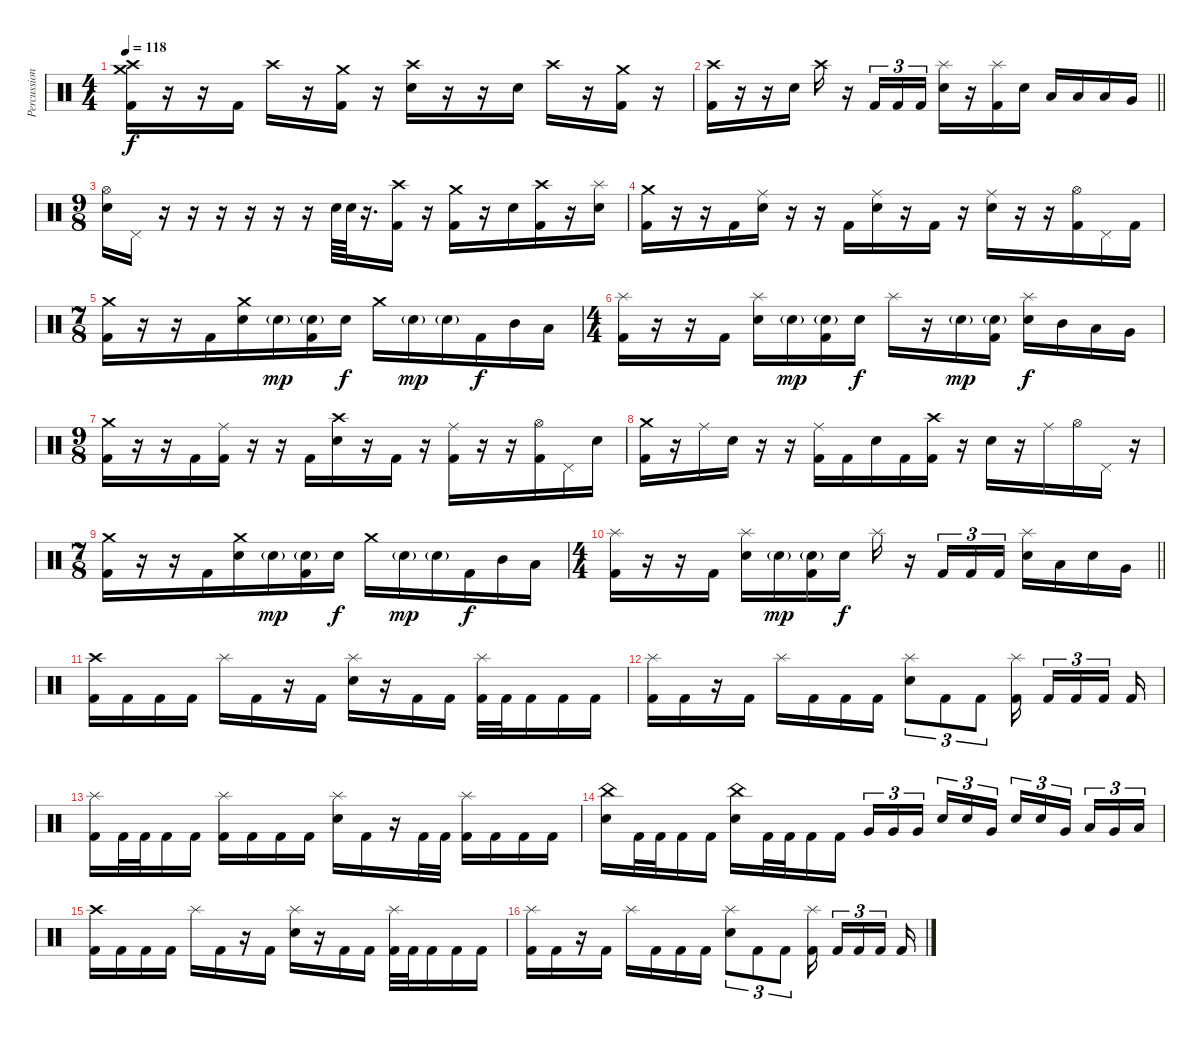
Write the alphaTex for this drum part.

\track ("Percussions" "Percussion") {instrument percussion}
\staff {score}
\articulation defaults
\ts (4 4)
\tempo 118
\clef neutral
\ks c
("Crash medium (hit)" "Crash high (hit)" "Kick (hit) 2").16{dy f} r.16 r.16 "Kick (hit) 2".16 "Crash high (hit)".16 r.16 ("Crash medium (hit)" "Kick (hit) 2").16 r.16 ("Crash high (hit)" "Electric Snare (hit)").16 r.16 r.16 "Electric Snare (hit)".16 "Crash high (hit)".16 r.16 ("Crash medium (hit)" "Kick (hit) 2").16 r.16 |
\barLineRight lightlight
("Crash high (hit)" "Kick (hit) 2").16 r.16 r.16 "Electric Snare (hit)".16 "Crash high (hit)".16 r.16 "Kick (hit) 2".16{tu (3 2)} "Kick (hit) 2".16{tu (3 2)} "Kick (hit) 2".16{tu (3 2)} ("Splash (hit)" "Electric Snare (hit)").16 r.16 ("Splash (hit)" "Kick (hit) 2").16 "Electric Snare (hit)".16 "Low Tom (hit)".16 "Low Floor Tom (hit)".16 "Low Tom (hit)".16 "Very Low Tom (hit)".16 |
\ts (9 8)
\section ("" "")
("Hi-Hat (open)" "Electric Snare (hit)").16 "Pedal Hi-Hat (hit)".16 r.16 r.16 r.16 r.16 r.16 r.16 "Electric Snare (hit)".64 "Electric Snare (hit)".64 r.16{d} ("Crash high (hit)" "Kick (hit) 2").16 r.16 ("Crash medium (hit)" "Kick (hit) 2").16 r.16 "Electric Snare (hit)".16 ("Crash high (hit)" "Kick (hit) 2").16 r.16 ("Splash (hit)" "Electric Snare (hit)").16 |
("Crash medium (hit)" "Kick (hit) 2").16 r.16 r.16 "Kick (hit) 2".16 ("Ride (middle)" "Electric Snare (hit)").16 r.16 r.16 "Kick (hit) 2".16 ("Ride (middle)" "Electric Snare (hit)").16 r.16 "Kick (hit) 2".16 r.16 ("Ride (middle)" "Electric Snare (hit)").16 r.16 r.16 ("Hi-Hat (open)" "Kick (hit) 2").16 "Pedal Hi-Hat (hit)".16 "Kick (hit) 2".16 |
\ts (7 8)
("Crash medium (hit)" "Kick (hit) 2").16 r.16 r.16 "Kick (hit) 2".16 ("Crash medium (hit)" "Electric Snare (hit)").16 "Electric Snare (hit)"{g}.16{dy mp} ("Electric Snare (hit)"{g} "Kick (hit) 2").16 "Electric Snare (hit)".16{dy f} "Crash medium (hit)".16 "Electric Snare (hit)"{g}.16{dy mp} "Electric Snare (hit)"{g}.16 "Kick (hit) 2".16{dy f} "Mid Tom (hit)".16 "Low Tom (hit)".16 |
\ts (4 4)
("Splash (hit)" "Kick (hit) 2").16 r.16 r.16 "Kick (hit) 2".16 ("Splash (hit)" "Electric Snare (hit)").16 "Electric Snare (hit)"{g}.16{dy mp} ("Electric Snare (hit)"{g} "Kick (hit) 2").16 "Electric Snare (hit)".16{dy f} "Splash (hit)".16 r.16 "Electric Snare (hit)"{g}.16{dy mp} ("Electric Snare (hit)"{g} "Kick (hit) 2").16 ("Splash (hit)" "Electric Snare (hit)").16{dy f} "Mid Tom (hit)".16 "Low Tom (hit)".16 "Very Low Tom (hit)".16 |
\ts (9 8)
("Crash medium (hit)" "Kick (hit) 2").16 r.16 r.16 "Kick (hit) 2".16 ("Ride (middle)" "Kick (hit) 2").16 r.16 r.16 "Kick (hit) 2".16 ("Crash high (hit)" "Electric Snare (hit)").16 r.16 "Kick (hit) 2".16 r.16 ("Ride (middle)" "Kick (hit) 2").16 r.16 r.16 ("Hi-Hat (open)" "Kick (hit) 2").16 "Pedal Hi-Hat (hit)".16 "Electric Snare (hit)".16 |
("Crash medium (hit)" "Kick (hit) 2").16 r.16 "Ride (middle)".16 "Electric Snare (hit)".16 r.16 r.16 ("Ride (middle)" "Kick (hit) 2").16 "Kick (hit) 2".16 "Electric Snare (hit)".16 "Kick (hit) 2".16 ("Crash high (hit)" "Kick (hit) 2").16 r.16 "Electric Snare (hit)".16 r.16 "Ride (middle)".16 "Hi-Hat (open)".16 "Pedal Hi-Hat (hit)".16 r.16 |
\ts (7 8)
("Crash medium (hit)" "Kick (hit) 2").16 r.16 r.16 "Kick (hit) 2".16 ("Crash medium (hit)" "Electric Snare (hit)").16 "Electric Snare (hit)"{g}.16{dy mp} ("Electric Snare (hit)"{g} "Kick (hit) 2").16 "Electric Snare (hit)".16{dy f} "Crash medium (hit)".16 "Electric Snare (hit)"{g}.16{dy mp} "Electric Snare (hit)"{g}.16 "Kick (hit) 2".16{dy f} "Mid Tom (hit)".16 "Low Tom (hit)".16 |
\ts (4 4)
\barLineRight lightlight
("Splash (hit)" "Kick (hit) 2").16 r.16 r.16 "Kick (hit) 2".16 ("Splash (hit)" "Electric Snare (hit)").16 "Electric Snare (hit)"{g}.16{dy mp} ("Electric Snare (hit)"{g} "Kick (hit) 2").16 "Electric Snare (hit)".16{dy f} "Splash (hit)".16 r.16 "Kick (hit) 2".16{tu (3 2)} "Kick (hit) 2".16{tu (3 2)} "Kick (hit) 2".16{tu (3 2)} ("Splash (hit)" "Electric Snare (hit)").16 "Low Tom (hit)".16 "Electric Snare (hit)".16 "Very Low Tom (hit)".16 |
\section ("" "")
("Crash high (hit)" "Kick (hit) 2").16 "Kick (hit) 2".16 "Kick (hit) 2".16 "Kick (hit) 2".16 "Splash (hit)".16 "Kick (hit) 2".16 r.16 "Kick (hit) 2".16 ("Splash (hit)" "Electric Snare (hit)").16 r.16 "Kick (hit) 2".16 "Kick (hit) 2".16 ("Splash (hit)" "Kick (hit) 2").32 "Kick (hit) 2".32 "Kick (hit) 2".16 "Kick (hit) 2".16 "Kick (hit) 2".16 |
("Splash (hit)" "Kick (hit) 2").16 "Kick (hit) 2".16 r.16 "Kick (hit) 2".16 "Splash (hit)".16 "Kick (hit) 2".16 "Kick (hit) 2".16 "Kick (hit) 2".16 ("Splash (hit)" "Electric Snare (hit)").8{tu (3 2)} "Kick (hit) 2".8{tu (3 2)} "Kick (hit) 2".8{tu (3 2)} ("Splash (hit)" "Kick (hit) 2").16{beam splitsecondary} "Kick (hit) 2".16{tu (3 2)} "Kick (hit) 2".16{tu (3 2)} "Kick (hit) 2".16{tu (3 2) beam splitsecondary} "Kick (hit) 2".16 |
("Splash (hit)" "Kick (hit) 2").16 "Kick (hit) 2".32 "Kick (hit) 2".32 "Kick (hit) 2".16 "Kick (hit) 2".16 ("Splash (hit)" "Kick (hit) 2").16 "Kick (hit) 2".16 "Kick (hit) 2".16 "Kick (hit) 2".16 ("Splash (hit)" "Electric Snare (hit)").16 "Kick (hit) 2".16 r.16 "Kick (hit) 2".32 "Kick (hit) 2".32 ("Splash (hit)" "Kick (hit) 2").16 "Kick (hit) 2".16 "Kick (hit) 2".16 "Kick (hit) 2".16 |
("China (hit)" "Electric Snare (hit)").16 "Kick (hit) 2".32 "Kick (hit) 2".32 "Kick (hit) 2".16 "Kick (hit) 2".16 ("China (hit)" "Electric Snare (hit)").16 "Kick (hit) 2".32 "Kick (hit) 2".32 "Kick (hit) 2".16 "Kick (hit) 2".16 "Very Low Tom (hit)".16{tu (3 2)} "Very Low Tom (hit)".16{tu (3 2)} "Very Low Tom (hit)".16{tu (3 2) beam splitsecondary} "Electric Snare (hit)".16{tu (3 2)} "Electric Snare (hit)".16{tu (3 2)} "Very Low Tom (hit)".16{tu (3 2)} "Electric Snare (hit)".16{tu (3 2)} "Electric Snare (hit)".16{tu (3 2)} "Very Low Tom (hit)".16{tu (3 2) beam splitsecondary} "Low Tom (hit)".16{tu (3 2)} "Very Low Tom (hit)".16{tu (3 2)} "Low Floor Tom (hit)".16{tu (3 2)} |
("Crash high (hit)" "Kick (hit) 2").16 "Kick (hit) 2".16 "Kick (hit) 2".16 "Kick (hit) 2".16 "Splash (hit)".16 "Kick (hit) 2".16 r.16 "Kick (hit) 2".16 ("Splash (hit)" "Electric Snare (hit)").16 r.16 "Kick (hit) 2".16 "Kick (hit) 2".16 ("Splash (hit)" "Kick (hit) 2").32 "Kick (hit) 2".32 "Kick (hit) 2".16 "Kick (hit) 2".16 "Kick (hit) 2".16 |
("Splash (hit)" "Kick (hit) 2").16 "Kick (hit) 2".16 r.16 "Kick (hit) 2".16 "Splash (hit)".16 "Kick (hit) 2".16 "Kick (hit) 2".16 "Kick (hit) 2".16 ("Splash (hit)" "Electric Snare (hit)").8{tu (3 2)} "Kick (hit) 2".8{tu (3 2)} "Kick (hit) 2".8{tu (3 2)} ("Splash (hit)" "Kick (hit) 2").16{beam splitsecondary} "Kick (hit) 2".16{tu (3 2)} "Kick (hit) 2".16{tu (3 2)} "Kick (hit) 2".16{tu (3 2) beam splitsecondary} "Kick (hit) 2".16
